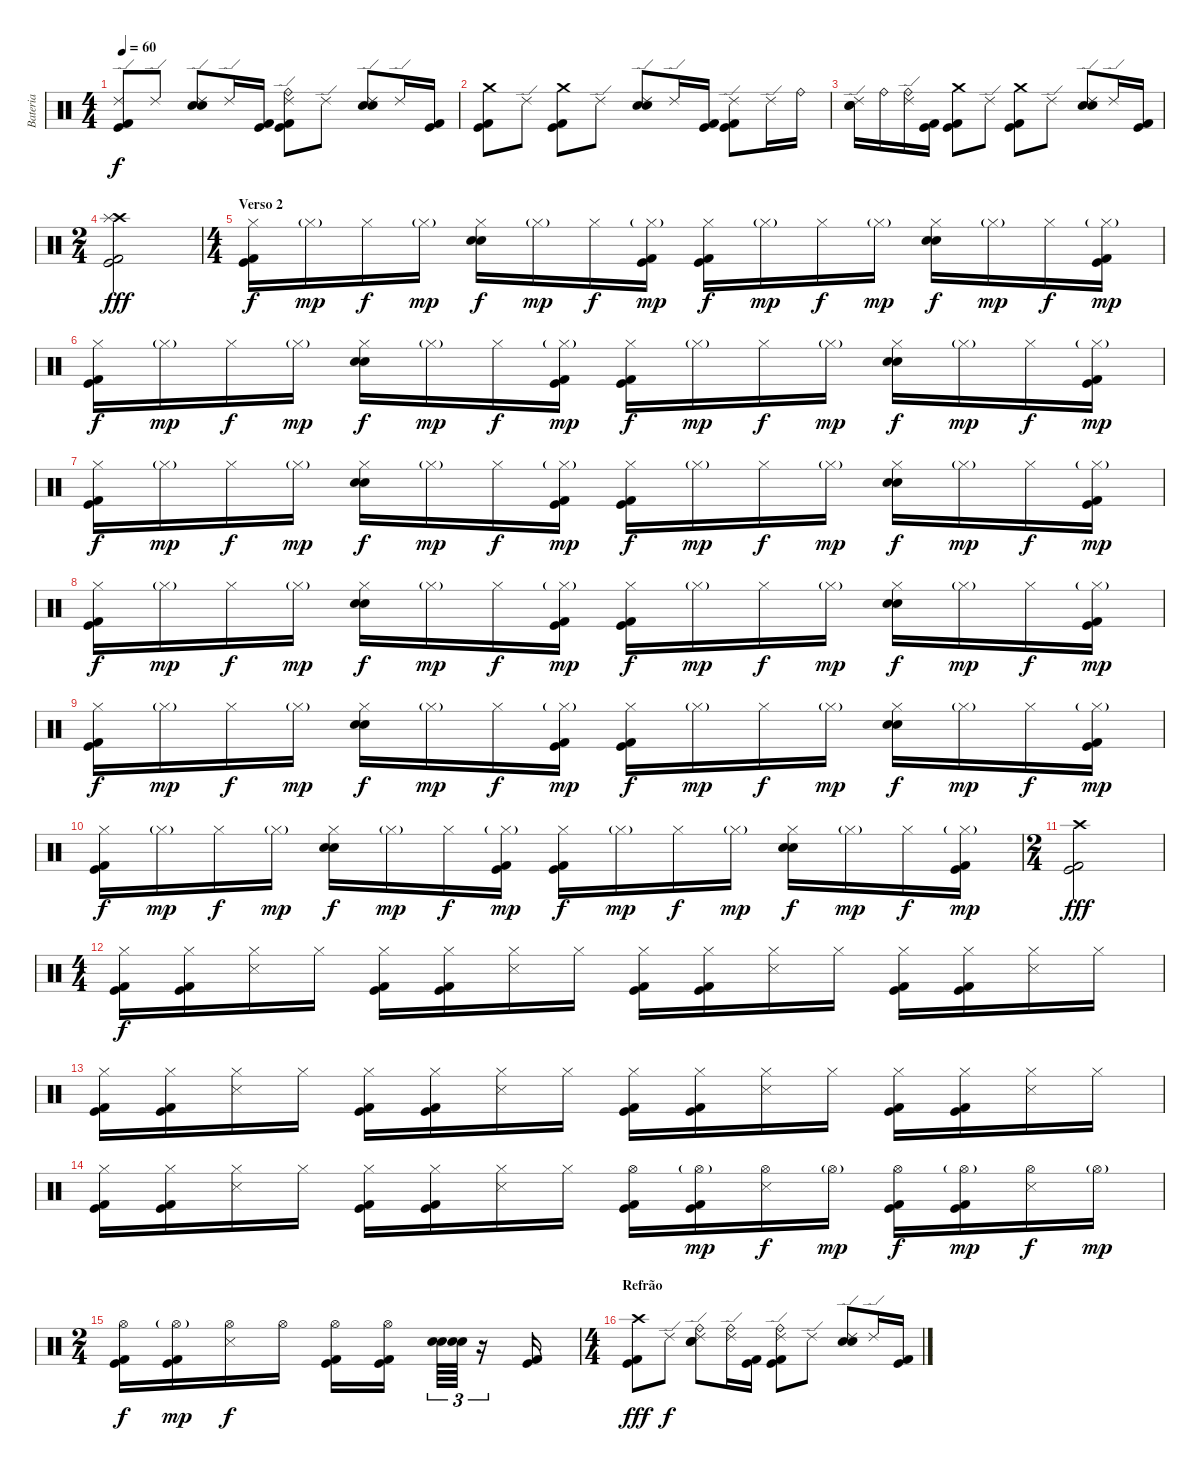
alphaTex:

\track ("Bateria" "Bateria") {instrument percussion}
\staff {score}
\articulation defaults
\ts (4 4)
\tempo 60
\clef neutral
\ks c
("Ride (edge) 2" "Kick (hit) 2" "Kick (hit)").8{dy f} "Ride (edge) 2".8 ("Ride (edge) 2" "Electric Snare (hit)" "Snare (hit) 2").8 "Ride (edge) 2".16 ("Kick (hit) 2" "Kick (hit)").16 ("Ride (bell)" "Ride (edge) 2" "Kick (hit) 2" "Kick (hit)").8 "Ride (edge) 2".8 ("Ride (edge) 2" "Electric Snare (hit)" "Snare (hit) 2").8 "Ride (edge) 2".16 ("Kick (hit) 2" "Kick (hit)").16 |
("Crash medium (hit)" "Kick (hit) 2" "Kick (hit)").8 "Ride (edge) 2".8 ("Crash medium (hit)" "Kick (hit) 2" "Kick (hit)").8 "Ride (edge) 2".8 ("Ride (edge) 2" "Electric Snare (hit)" "Snare (hit) 2").8 "Ride (edge) 2".16 ("Kick (hit) 2" "Kick (hit)").16 ("Ride (edge) 2" "Kick (hit) 2" "Kick (hit)").8 "Ride (edge) 2".16 "Ride (bell)".16 |
("Ride (edge) 2" "Electric Snare (hit)" "Snare (hit) 2").16 "Ride (bell)".16 ("Ride (bell)" "Ride (edge) 2").16 ("Kick (hit) 2" "Kick (hit)").16 ("Crash medium (hit)" "Kick (hit) 2" "Kick (hit)").8 "Ride (edge) 2".8 ("Crash medium (hit)" "Kick (hit) 2" "Kick (hit)").8 "Ride (edge) 2".8 ("Ride (edge) 2" "Electric Snare (hit)" "Snare (hit) 2").8 "Ride (edge) 2".16 ("Kick (hit) 2" "Kick (hit)").16 |
\ts (2 4)
("Crash high (hit)" "Splash (hit)" "Kick (hit) 2" "Kick (hit)").2{dy fff} |
\ts (4 4)
\section ("" "Verso 2")
("Hi-Hat (closed)" "Kick (hit) 2" "Kick (hit)").16{dy f} "Hi-Hat (closed)"{g}.16{dy mp} "Hi-Hat (closed)".16{dy f} "Hi-Hat (closed)"{g}.16{dy mp} ("Hi-Hat (closed)" "Electric Snare (hit)" "Snare (hit) 2").16{dy f} "Hi-Hat (closed)"{g}.16{dy mp} "Hi-Hat (closed)".16{dy f} ("Hi-Hat (closed)"{g} "Kick (hit) 2" "Kick (hit)").16{dy mp} ("Hi-Hat (closed)" "Kick (hit) 2" "Kick (hit)").16{dy f} "Hi-Hat (closed)"{g}.16{dy mp} "Hi-Hat (closed)".16{dy f} "Hi-Hat (closed)"{g}.16{dy mp} ("Hi-Hat (closed)" "Electric Snare (hit)" "Snare (hit) 2").16{dy f} "Hi-Hat (closed)"{g}.16{dy mp} "Hi-Hat (closed)".16{dy f} ("Hi-Hat (closed)"{g} "Kick (hit) 2" "Kick (hit)").16{dy mp} |
("Hi-Hat (closed)" "Kick (hit) 2" "Kick (hit)").16{dy f} "Hi-Hat (closed)"{g}.16{dy mp} "Hi-Hat (closed)".16{dy f} "Hi-Hat (closed)"{g}.16{dy mp} ("Hi-Hat (closed)" "Electric Snare (hit)" "Snare (hit) 2").16{dy f} "Hi-Hat (closed)"{g}.16{dy mp} "Hi-Hat (closed)".16{dy f} ("Hi-Hat (closed)"{g} "Kick (hit) 2" "Kick (hit)").16{dy mp} ("Hi-Hat (closed)" "Kick (hit) 2" "Kick (hit)").16{dy f} "Hi-Hat (closed)"{g}.16{dy mp} "Hi-Hat (closed)".16{dy f} "Hi-Hat (closed)"{g}.16{dy mp} ("Hi-Hat (closed)" "Electric Snare (hit)" "Snare (hit) 2").16{dy f} "Hi-Hat (closed)"{g}.16{dy mp} "Hi-Hat (closed)".16{dy f} ("Hi-Hat (closed)"{g} "Kick (hit) 2" "Kick (hit)").16{dy mp} |
("Hi-Hat (closed)" "Kick (hit) 2" "Kick (hit)").16{dy f} "Hi-Hat (closed)"{g}.16{dy mp} "Hi-Hat (closed)".16{dy f} "Hi-Hat (closed)"{g}.16{dy mp} ("Hi-Hat (closed)" "Electric Snare (hit)" "Snare (hit) 2").16{dy f} "Hi-Hat (closed)"{g}.16{dy mp} "Hi-Hat (closed)".16{dy f} ("Hi-Hat (closed)"{g} "Kick (hit) 2" "Kick (hit)").16{dy mp} ("Hi-Hat (closed)" "Kick (hit) 2" "Kick (hit)").16{dy f} "Hi-Hat (closed)"{g}.16{dy mp} "Hi-Hat (closed)".16{dy f} "Hi-Hat (closed)"{g}.16{dy mp} ("Hi-Hat (closed)" "Electric Snare (hit)" "Snare (hit) 2").16{dy f} "Hi-Hat (closed)"{g}.16{dy mp} "Hi-Hat (closed)".16{dy f} ("Hi-Hat (closed)"{g} "Kick (hit) 2" "Kick (hit)").16{dy mp} |
("Hi-Hat (closed)" "Kick (hit) 2" "Kick (hit)").16{dy f} "Hi-Hat (closed)"{g}.16{dy mp} "Hi-Hat (closed)".16{dy f} "Hi-Hat (closed)"{g}.16{dy mp} ("Hi-Hat (closed)" "Electric Snare (hit)" "Snare (hit) 2").16{dy f} "Hi-Hat (closed)"{g}.16{dy mp} "Hi-Hat (closed)".16{dy f} ("Hi-Hat (closed)"{g} "Kick (hit) 2" "Kick (hit)").16{dy mp} ("Hi-Hat (closed)" "Kick (hit) 2" "Kick (hit)").16{dy f} "Hi-Hat (closed)"{g}.16{dy mp} "Hi-Hat (closed)".16{dy f} "Hi-Hat (closed)"{g}.16{dy mp} ("Hi-Hat (closed)" "Electric Snare (hit)" "Snare (hit) 2").16{dy f} "Hi-Hat (closed)"{g}.16{dy mp} "Hi-Hat (closed)".16{dy f} ("Hi-Hat (closed)"{g} "Kick (hit) 2" "Kick (hit)").16{dy mp} |
("Hi-Hat (closed)" "Kick (hit) 2" "Kick (hit)").16{dy f} "Hi-Hat (closed)"{g}.16{dy mp} "Hi-Hat (closed)".16{dy f} "Hi-Hat (closed)"{g}.16{dy mp} ("Hi-Hat (closed)" "Electric Snare (hit)" "Snare (hit) 2").16{dy f} "Hi-Hat (closed)"{g}.16{dy mp} "Hi-Hat (closed)".16{dy f} ("Hi-Hat (closed)"{g} "Kick (hit) 2" "Kick (hit)").16{dy mp} ("Hi-Hat (closed)" "Kick (hit) 2" "Kick (hit)").16{dy f} "Hi-Hat (closed)"{g}.16{dy mp} "Hi-Hat (closed)".16{dy f} "Hi-Hat (closed)"{g}.16{dy mp} ("Hi-Hat (closed)" "Electric Snare (hit)" "Snare (hit) 2").16{dy f} "Hi-Hat (closed)"{g}.16{dy mp} "Hi-Hat (closed)".16{dy f} ("Hi-Hat (closed)"{g} "Kick (hit) 2" "Kick (hit)").16{dy mp} |
("Hi-Hat (closed)" "Kick (hit) 2" "Kick (hit)").16{dy f} "Hi-Hat (closed)"{g}.16{dy mp} "Hi-Hat (closed)".16{dy f} "Hi-Hat (closed)"{g}.16{dy mp} ("Hi-Hat (closed)" "Electric Snare (hit)" "Snare (hit) 2").16{dy f} "Hi-Hat (closed)"{g}.16{dy mp} "Hi-Hat (closed)".16{dy f} ("Hi-Hat (closed)"{g} "Kick (hit) 2" "Kick (hit)").16{dy mp} ("Hi-Hat (closed)" "Kick (hit) 2" "Kick (hit)").16{dy f} "Hi-Hat (closed)"{g}.16{dy mp} "Hi-Hat (closed)".16{dy f} "Hi-Hat (closed)"{g}.16{dy mp} ("Hi-Hat (closed)" "Electric Snare (hit)" "Snare (hit) 2").16{dy f} "Hi-Hat (closed)"{g}.16{dy mp} "Hi-Hat (closed)".16{dy f} ("Hi-Hat (closed)"{g} "Kick (hit) 2" "Kick (hit)").16{dy mp} |
\ts (2 4)
("Crash high (hit)" "Kick (hit) 2" "Kick (hit)").2{dy fff} |
\ts (4 4)
("Hi-Hat (closed)" "Kick (hit) 2" "Kick (hit)").16{dy f} ("Hi-Hat (closed)" "Kick (hit) 2" "Kick (hit)").16 ("Hi-Hat (closed)" "Snare (side stick) 3").16 "Hi-Hat (closed)".16 ("Hi-Hat (closed)" "Kick (hit) 2" "Kick (hit)").16 ("Hi-Hat (closed)" "Kick (hit) 2" "Kick (hit)").16 ("Hi-Hat (closed)" "Snare (side stick) 3").16 "Hi-Hat (closed)".16 ("Hi-Hat (closed)" "Kick (hit) 2" "Kick (hit)").16 ("Hi-Hat (closed)" "Kick (hit) 2" "Kick (hit)").16 ("Hi-Hat (closed)" "Snare (side stick) 3").16 "Hi-Hat (closed)".16 ("Hi-Hat (closed)" "Kick (hit) 2" "Kick (hit)").16 ("Hi-Hat (closed)" "Kick (hit) 2" "Kick (hit)").16 ("Hi-Hat (closed)" "Snare (side stick) 3").16 "Hi-Hat (closed)".16 |
("Hi-Hat (closed)" "Kick (hit) 2" "Kick (hit)").16 ("Hi-Hat (closed)" "Kick (hit) 2" "Kick (hit)").16 ("Hi-Hat (closed)" "Snare (side stick) 3").16 "Hi-Hat (closed)".16 ("Hi-Hat (closed)" "Kick (hit) 2" "Kick (hit)").16 ("Hi-Hat (closed)" "Kick (hit) 2" "Kick (hit)").16 ("Hi-Hat (closed)" "Snare (side stick) 3").16 "Hi-Hat (closed)".16 ("Hi-Hat (closed)" "Kick (hit) 2" "Kick (hit)").16 ("Hi-Hat (closed)" "Kick (hit) 2" "Kick (hit)").16 ("Hi-Hat (closed)" "Snare (side stick) 3").16 "Hi-Hat (closed)".16 ("Hi-Hat (closed)" "Kick (hit) 2" "Kick (hit)").16 ("Hi-Hat (closed)" "Kick (hit) 2" "Kick (hit)").16 ("Hi-Hat (closed)" "Snare (side stick) 3").16 "Hi-Hat (closed)".16 |
("Hi-Hat (closed)" "Kick (hit) 2" "Kick (hit)").16 ("Hi-Hat (closed)" "Kick (hit) 2" "Kick (hit)").16 ("Hi-Hat (closed)" "Snare (side stick) 3").16 "Hi-Hat (closed)".16 ("Hi-Hat (closed)" "Kick (hit) 2" "Kick (hit)").16 ("Hi-Hat (closed)" "Kick (hit) 2" "Kick (hit)").16 ("Hi-Hat (closed)" "Snare (side stick) 3").16 "Hi-Hat (closed)".16 ("Hi-Hat (open)" "Kick (hit) 2" "Kick (hit)").16 ("Hi-Hat (open)"{g} "Kick (hit) 2" "Kick (hit)").16{dy mp} ("Hi-Hat (open)" "Snare (side stick) 3").16{dy f} "Hi-Hat (open)"{g}.16{dy mp} ("Hi-Hat (open)" "Kick (hit) 2" "Kick (hit)").16{dy f} ("Hi-Hat (open)"{g} "Kick (hit) 2" "Kick (hit)").16{dy mp} ("Hi-Hat (open)" "Snare (side stick) 3").16{dy f} "Hi-Hat (open)"{g}.16{dy mp} |
\ts (2 4)
("Hi-Hat (open)" "Kick (hit) 2" "Kick (hit)").16{dy f} ("Hi-Hat (open)"{g} "Kick (hit) 2" "Kick (hit)").16{dy mp} ("Hi-Hat (open)" "Snare (side stick) 3").16{dy f} "Hi-Hat (open)".16 ("Hi-Hat (open)" "Kick (hit) 2" "Kick (hit)").16 ("Hi-Hat (open)" "Kick (hit) 2" "Kick (hit)").16 ("Electric Snare (hit)" "Snare (hit) 2").64{tu (3 2)} ("Electric Snare (hit)" "Snare (hit) 2").64{tu (3 2)} r.16{tu (3 2)} ("Kick (hit) 2" "Kick (hit)").16 |
\ts (4 4)
\section ("" "Refrão")
("Crash high (hit)" "Kick (hit) 2" "Kick (hit)").8{dy fff} "Ride (edge) 2".8{dy f} ("Ride (bell)" "Ride (edge) 2" "Electric Snare (hit)" "Snare (hit) 2").8 ("Ride (bell)" "Ride (edge) 2").16 ("Kick (hit) 2" "Kick (hit)").16 ("Ride (bell)" "Ride (edge) 2" "Kick (hit) 2" "Kick (hit)").8 "Ride (edge) 2".8 ("Ride (edge) 2" "Electric Snare (hit)" "Snare (hit) 2").8 "Ride (edge) 2".16 ("Kick (hit) 2" "Kick (hit)").16
